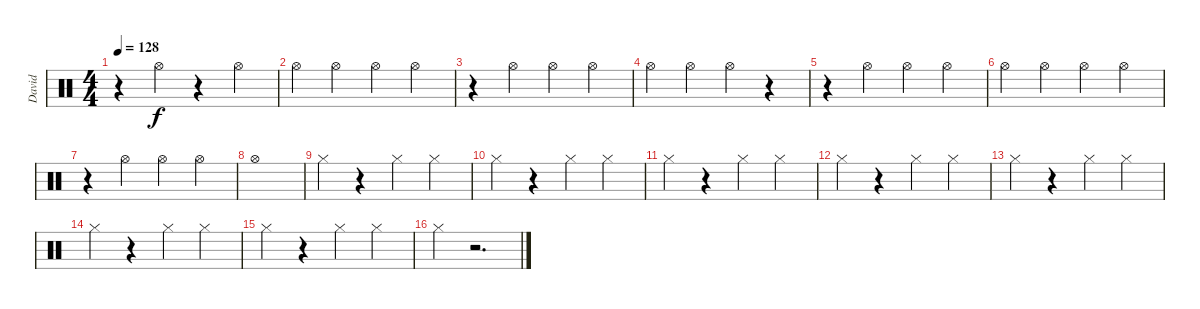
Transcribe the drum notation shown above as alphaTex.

\track ("David" "David") {instrument percussion}
\staff {score}
\articulation defaults
\ts (4 4)
\tempo 128
\clef neutral
\ks c
r.4{dy f} "Hi-Hat (open)".4 r.4 "Hi-Hat (open)".4 |
"Hi-Hat (open)".4 "Hi-Hat (open)".4 "Hi-Hat (open)".4 "Hi-Hat (open)".4 |
r.4 "Hi-Hat (open)".4 "Hi-Hat (open)".4 "Hi-Hat (open)".4 |
"Hi-Hat (open)".4 "Hi-Hat (open)".4 "Hi-Hat (open)".4 r.4 |
r.4 "Hi-Hat (open)".4 "Hi-Hat (open)".4 "Hi-Hat (open)".4 |
"Hi-Hat (open)".4 "Hi-Hat (open)".4 "Hi-Hat (open)".4 "Hi-Hat (open)".4 |
r.4 "Hi-Hat (open)".4 "Hi-Hat (open)".4 "Hi-Hat (open)".4 |
"Hi-Hat (open)".1 |
"Hi-Hat (closed)".4 r.4 "Hi-Hat (closed)".4 "Hi-Hat (closed)".4 |
"Hi-Hat (closed)".4 r.4 "Hi-Hat (closed)".4 "Hi-Hat (closed)".4 |
"Hi-Hat (closed)".4 r.4 "Hi-Hat (closed)".4 "Hi-Hat (closed)".4 |
"Hi-Hat (closed)".4 r.4 "Hi-Hat (closed)".4 "Hi-Hat (closed)".4 |
"Hi-Hat (closed)".4 r.4 "Hi-Hat (closed)".4 "Hi-Hat (closed)".4 |
"Hi-Hat (closed)".4 r.4 "Hi-Hat (closed)".4 "Hi-Hat (closed)".4 |
"Hi-Hat (closed)".4 r.4 "Hi-Hat (closed)".4 "Hi-Hat (closed)".4 |
"Hi-Hat (closed)".4 r.2{d}
